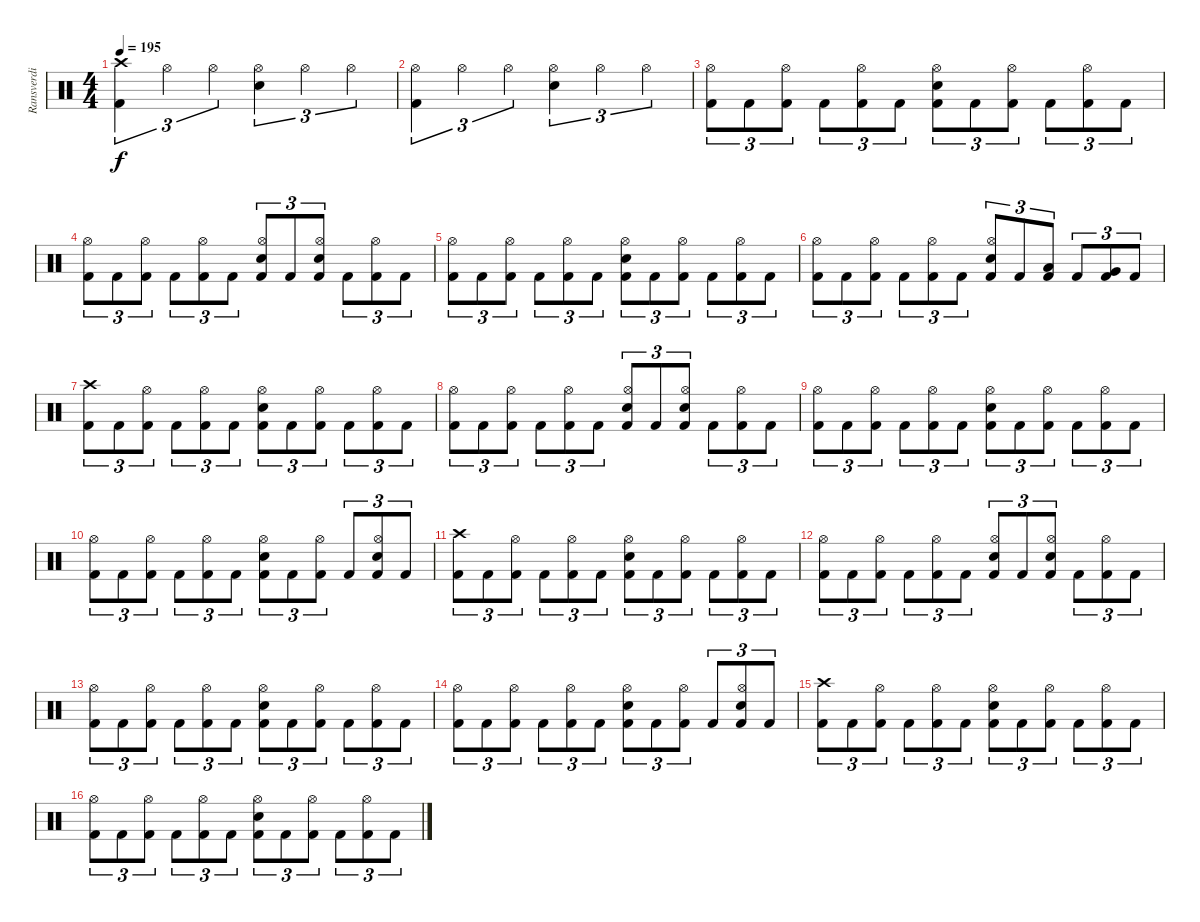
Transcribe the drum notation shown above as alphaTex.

\track ("Ransverdi" "Ransverdi") {instrument percussion}
\staff {score}
\articulation defaults
\ts (4 4)
\tempo 195
\clef neutral
\ks c
("Crash high (hit)" "Kick (hit) 2").4{tu (3 2) dy f} "Hi-Hat (open)".4{tu (3 2)} "Hi-Hat (open)".4{tu (3 2)} ("Hi-Hat (open)" "Snare (hit) 2").4{tu (3 2)} "Hi-Hat (open)".4{tu (3 2)} "Hi-Hat (open)".4{tu (3 2)} |
("Hi-Hat (open)" "Kick (hit) 2").4{tu (3 2)} "Hi-Hat (open)".4{tu (3 2)} "Hi-Hat (open)".4{tu (3 2)} ("Hi-Hat (open)" "Snare (hit) 2").4{tu (3 2)} "Hi-Hat (open)".4{tu (3 2)} "Hi-Hat (open)".4{tu (3 2)} |
("Hi-Hat (open)" "Kick (hit) 2").8{tu (3 2)} "Kick (hit) 2".8{tu (3 2)} ("Hi-Hat (open)" "Kick (hit) 2").8{tu (3 2)} "Kick (hit) 2".8{tu (3 2)} ("Hi-Hat (open)" "Kick (hit) 2").8{tu (3 2)} "Kick (hit) 2".8{tu (3 2)} ("Hi-Hat (open)" "Snare (hit) 2" "Kick (hit) 2").8{tu (3 2)} "Kick (hit) 2".8{tu (3 2)} ("Hi-Hat (open)" "Kick (hit) 2").8{tu (3 2)} "Kick (hit) 2".8{tu (3 2)} ("Hi-Hat (open)" "Kick (hit) 2").8{tu (3 2)} "Kick (hit) 2".8{tu (3 2)} |
("Hi-Hat (open)" "Kick (hit) 2").8{tu (3 2)} "Kick (hit) 2".8{tu (3 2)} ("Hi-Hat (open)" "Kick (hit) 2").8{tu (3 2)} "Kick (hit) 2".8{tu (3 2)} ("Hi-Hat (open)" "Kick (hit) 2").8{tu (3 2)} "Kick (hit) 2".8{tu (3 2)} ("Hi-Hat (open)" "Snare (hit) 2" "Kick (hit) 2").8{tu (3 2)} "Kick (hit) 2".8{tu (3 2)} ("Hi-Hat (open)" "Snare (hit) 2" "Kick (hit) 2").8{tu (3 2)} "Kick (hit) 2".8{tu (3 2)} ("Hi-Hat (open)" "Kick (hit) 2").8{tu (3 2)} "Kick (hit) 2".8{tu (3 2)} |
("Hi-Hat (open)" "Kick (hit) 2").8{tu (3 2)} "Kick (hit) 2".8{tu (3 2)} ("Hi-Hat (open)" "Kick (hit) 2").8{tu (3 2)} "Kick (hit) 2".8{tu (3 2)} ("Hi-Hat (open)" "Kick (hit) 2").8{tu (3 2)} "Kick (hit) 2".8{tu (3 2)} ("Hi-Hat (open)" "Snare (hit) 2" "Kick (hit) 2").8{tu (3 2)} "Kick (hit) 2".8{tu (3 2)} ("Hi-Hat (open)" "Kick (hit) 2").8{tu (3 2)} "Kick (hit) 2".8{tu (3 2)} ("Hi-Hat (open)" "Kick (hit) 2").8{tu (3 2)} "Kick (hit) 2".8{tu (3 2)} |
("Hi-Hat (open)" "Kick (hit) 2").8{tu (3 2)} "Kick (hit) 2".8{tu (3 2)} ("Hi-Hat (open)" "Kick (hit) 2").8{tu (3 2)} "Kick (hit) 2".8{tu (3 2)} ("Hi-Hat (open)" "Kick (hit) 2").8{tu (3 2)} "Kick (hit) 2".8{tu (3 2)} ("Hi-Hat (open)" "Snare (hit) 2" "Kick (hit) 2").8{tu (3 2)} "Kick (hit) 2".8{tu (3 2)} ("Low Tom (hit)" "Kick (hit) 2").8{tu (3 2)} "Kick (hit) 2".8{tu (3 2)} ("Very Low Tom (hit)" "Kick (hit) 2").8{tu (3 2)} "Kick (hit) 2".8{tu (3 2)} |
("Crash high (hit)" "Kick (hit) 2").8{tu (3 2)} "Kick (hit) 2".8{tu (3 2)} ("Hi-Hat (open)" "Kick (hit) 2").8{tu (3 2)} "Kick (hit) 2".8{tu (3 2)} ("Hi-Hat (open)" "Kick (hit) 2").8{tu (3 2)} "Kick (hit) 2".8{tu (3 2)} ("Hi-Hat (open)" "Snare (hit) 2" "Kick (hit) 2").8{tu (3 2)} "Kick (hit) 2".8{tu (3 2)} ("Hi-Hat (open)" "Kick (hit) 2").8{tu (3 2)} "Kick (hit) 2".8{tu (3 2)} ("Hi-Hat (open)" "Kick (hit) 2").8{tu (3 2)} "Kick (hit) 2".8{tu (3 2)} |
("Hi-Hat (open)" "Kick (hit) 2").8{tu (3 2)} "Kick (hit) 2".8{tu (3 2)} ("Hi-Hat (open)" "Kick (hit) 2").8{tu (3 2)} "Kick (hit) 2".8{tu (3 2)} ("Hi-Hat (open)" "Kick (hit) 2").8{tu (3 2)} "Kick (hit) 2".8{tu (3 2)} ("Hi-Hat (open)" "Snare (hit) 2" "Kick (hit) 2").8{tu (3 2)} "Kick (hit) 2".8{tu (3 2)} ("Hi-Hat (open)" "Snare (hit) 2" "Kick (hit) 2").8{tu (3 2)} "Kick (hit) 2".8{tu (3 2)} ("Hi-Hat (open)" "Kick (hit) 2").8{tu (3 2)} "Kick (hit) 2".8{tu (3 2)} |
("Hi-Hat (open)" "Kick (hit) 2").8{tu (3 2)} "Kick (hit) 2".8{tu (3 2)} ("Hi-Hat (open)" "Kick (hit) 2").8{tu (3 2)} "Kick (hit) 2".8{tu (3 2)} ("Hi-Hat (open)" "Kick (hit) 2").8{tu (3 2)} "Kick (hit) 2".8{tu (3 2)} ("Hi-Hat (open)" "Snare (hit) 2" "Kick (hit) 2").8{tu (3 2)} "Kick (hit) 2".8{tu (3 2)} ("Hi-Hat (open)" "Kick (hit) 2").8{tu (3 2)} "Kick (hit) 2".8{tu (3 2)} ("Hi-Hat (open)" "Kick (hit) 2").8{tu (3 2)} "Kick (hit) 2".8{tu (3 2)} |
("Hi-Hat (open)" "Kick (hit) 2").8{tu (3 2)} "Kick (hit) 2".8{tu (3 2)} ("Hi-Hat (open)" "Kick (hit) 2").8{tu (3 2)} "Kick (hit) 2".8{tu (3 2)} ("Hi-Hat (open)" "Kick (hit) 2").8{tu (3 2)} "Kick (hit) 2".8{tu (3 2)} ("Hi-Hat (open)" "Snare (hit) 2" "Kick (hit) 2").8{tu (3 2)} "Kick (hit) 2".8{tu (3 2)} ("Hi-Hat (open)" "Kick (hit) 2").8{tu (3 2)} "Kick (hit) 2".8{tu (3 2)} ("Hi-Hat (open)" "Snare (hit) 2" "Kick (hit) 2").8{tu (3 2)} "Kick (hit) 2".8{tu (3 2)} |
("Crash high (hit)" "Kick (hit) 2").8{tu (3 2)} "Kick (hit) 2".8{tu (3 2)} ("Hi-Hat (open)" "Kick (hit) 2").8{tu (3 2)} "Kick (hit) 2".8{tu (3 2)} ("Hi-Hat (open)" "Kick (hit) 2").8{tu (3 2)} "Kick (hit) 2".8{tu (3 2)} ("Hi-Hat (open)" "Snare (hit) 2" "Kick (hit) 2").8{tu (3 2)} "Kick (hit) 2".8{tu (3 2)} ("Hi-Hat (open)" "Kick (hit) 2").8{tu (3 2)} "Kick (hit) 2".8{tu (3 2)} ("Hi-Hat (open)" "Kick (hit) 2").8{tu (3 2)} "Kick (hit) 2".8{tu (3 2)} |
("Hi-Hat (open)" "Kick (hit) 2").8{tu (3 2)} "Kick (hit) 2".8{tu (3 2)} ("Hi-Hat (open)" "Kick (hit) 2").8{tu (3 2)} "Kick (hit) 2".8{tu (3 2)} ("Hi-Hat (open)" "Kick (hit) 2").8{tu (3 2)} "Kick (hit) 2".8{tu (3 2)} ("Hi-Hat (open)" "Snare (hit) 2" "Kick (hit) 2").8{tu (3 2)} "Kick (hit) 2".8{tu (3 2)} ("Hi-Hat (open)" "Snare (hit) 2" "Kick (hit) 2").8{tu (3 2)} "Kick (hit) 2".8{tu (3 2)} ("Hi-Hat (open)" "Kick (hit) 2").8{tu (3 2)} "Kick (hit) 2".8{tu (3 2)} |
("Hi-Hat (open)" "Kick (hit) 2").8{tu (3 2)} "Kick (hit) 2".8{tu (3 2)} ("Hi-Hat (open)" "Kick (hit) 2").8{tu (3 2)} "Kick (hit) 2".8{tu (3 2)} ("Hi-Hat (open)" "Kick (hit) 2").8{tu (3 2)} "Kick (hit) 2".8{tu (3 2)} ("Hi-Hat (open)" "Snare (hit) 2" "Kick (hit) 2").8{tu (3 2)} "Kick (hit) 2".8{tu (3 2)} ("Hi-Hat (open)" "Kick (hit) 2").8{tu (3 2)} "Kick (hit) 2".8{tu (3 2)} ("Hi-Hat (open)" "Kick (hit) 2").8{tu (3 2)} "Kick (hit) 2".8{tu (3 2)} |
("Hi-Hat (open)" "Kick (hit) 2").8{tu (3 2)} "Kick (hit) 2".8{tu (3 2)} ("Hi-Hat (open)" "Kick (hit) 2").8{tu (3 2)} "Kick (hit) 2".8{tu (3 2)} ("Hi-Hat (open)" "Kick (hit) 2").8{tu (3 2)} "Kick (hit) 2".8{tu (3 2)} ("Hi-Hat (open)" "Snare (hit) 2" "Kick (hit) 2").8{tu (3 2)} "Kick (hit) 2".8{tu (3 2)} ("Hi-Hat (open)" "Kick (hit) 2").8{tu (3 2)} "Kick (hit) 2".8{tu (3 2)} ("Hi-Hat (open)" "Snare (hit) 2" "Kick (hit) 2").8{tu (3 2)} "Kick (hit) 2".8{tu (3 2)} |
("Crash high (hit)" "Kick (hit) 2").8{tu (3 2)} "Kick (hit) 2".8{tu (3 2)} ("Hi-Hat (open)" "Kick (hit) 2").8{tu (3 2)} "Kick (hit) 2".8{tu (3 2)} ("Hi-Hat (open)" "Kick (hit) 2").8{tu (3 2)} "Kick (hit) 2".8{tu (3 2)} ("Hi-Hat (open)" "Snare (hit) 2" "Kick (hit) 2").8{tu (3 2)} "Kick (hit) 2".8{tu (3 2)} ("Hi-Hat (open)" "Kick (hit) 2").8{tu (3 2)} "Kick (hit) 2".8{tu (3 2)} ("Hi-Hat (open)" "Kick (hit) 2").8{tu (3 2)} "Kick (hit) 2".8{tu (3 2)} |
("Hi-Hat (open)" "Kick (hit) 2").8{tu (3 2)} "Kick (hit) 2".8{tu (3 2)} ("Hi-Hat (open)" "Kick (hit) 2").8{tu (3 2)} "Kick (hit) 2".8{tu (3 2)} ("Hi-Hat (open)" "Kick (hit) 2").8{tu (3 2)} "Kick (hit) 2".8{tu (3 2)} ("Hi-Hat (open)" "Snare (hit) 2" "Kick (hit) 2").8{tu (3 2)} "Kick (hit) 2".8{tu (3 2)} ("Hi-Hat (open)" "Kick (hit) 2").8{tu (3 2)} "Kick (hit) 2".8{tu (3 2)} ("Hi-Hat (open)" "Kick (hit) 2").8{tu (3 2)} "Kick (hit) 2".8{tu (3 2)}
